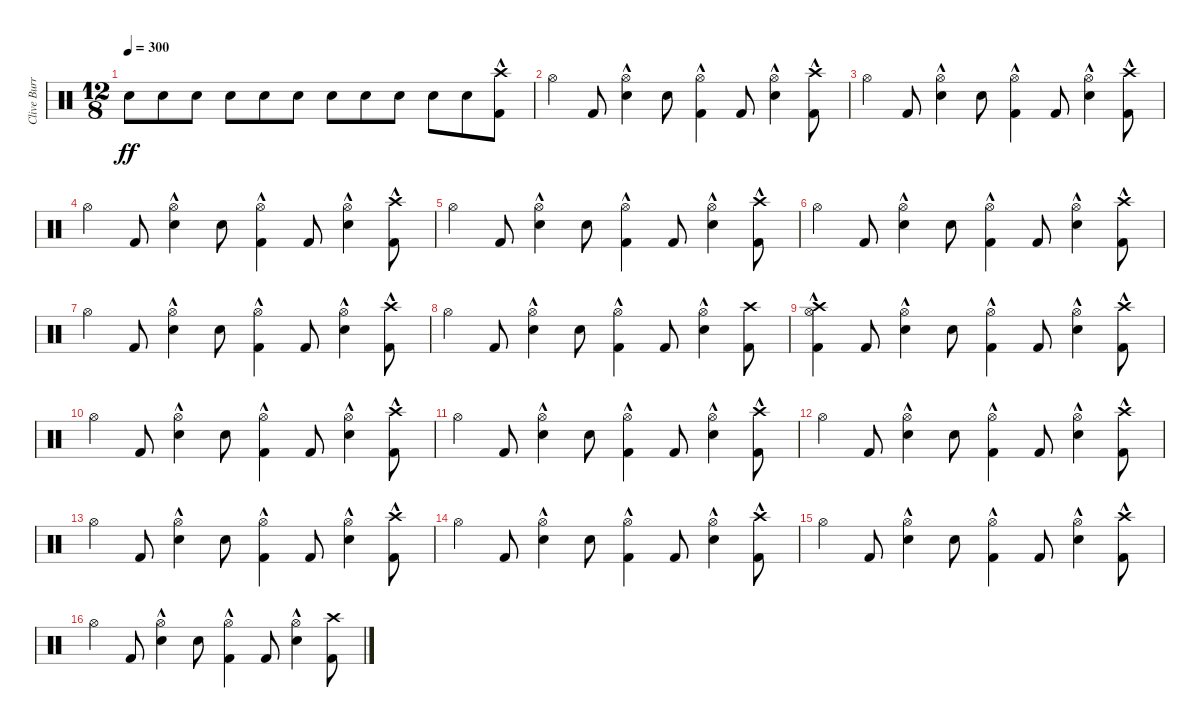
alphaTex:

\track ("Clive Burr" "Clive Burr") {instrument percussion}
\staff {score}
\articulation defaults
\ts (12 8)
\tempo 300
\clef neutral
\ks c "Snare (hit) 2".8{dy ff} "Snare (hit) 2".8 "Snare (hit) 2".8 "Snare (hit) 2".8 "Snare (hit) 2".8 "Snare (hit) 2".8 "Snare (hit) 2".8 "Snare (hit) 2".8 "Snare (hit) 2".8 "Snare (hit) 2".8 "Snare (hit) 2".8
("Kick (hit) 2" "Crash high (hit)"{hac}).8 |
"Hi-Hat (open)".4 "Kick (hit) 2".8 ("Snare (hit) 2"{hac} "Hi-Hat (open)").4 "Snare (hit) 2".8 ("Kick (hit) 2"{hac} "Hi-Hat (open)").4 "Kick (hit) 2".8 ("Snare (hit) 2"{hac} "Hi-Hat (open)").4 ("Kick (hit) 2" "Crash high (hit)"{hac}).8 |
"Hi-Hat (open)".4 "Kick (hit) 2".8 ("Snare (hit) 2"{hac} "Hi-Hat (open)").4 "Snare (hit) 2".8 ("Kick (hit) 2"{hac} "Hi-Hat (open)").4 "Kick (hit) 2".8 ("Snare (hit) 2"{hac} "Hi-Hat (open)").4 ("Kick (hit) 2" "Crash high (hit)"{hac}).8 |
"Hi-Hat (open)".4 "Kick (hit) 2".8 ("Snare (hit) 2"{hac} "Hi-Hat (open)").4 "Snare (hit) 2".8 ("Kick (hit) 2"{hac} "Hi-Hat (open)").4 "Kick (hit) 2".8 ("Snare (hit) 2"{hac} "Hi-Hat (open)").4 ("Kick (hit) 2" "Crash high (hit)"{hac}).8 |
"Hi-Hat (open)".4 "Kick (hit) 2".8 ("Snare (hit) 2"{hac} "Hi-Hat (open)").4 "Snare (hit) 2".8 ("Kick (hit) 2"{hac} "Hi-Hat (open)").4 "Kick (hit) 2".8 ("Snare (hit) 2"{hac} "Hi-Hat (open)").4 ("Kick (hit) 2" "Crash high (hit)"{hac}).8 |
"Hi-Hat (open)".4 "Kick (hit) 2".8 ("Snare (hit) 2"{hac} "Hi-Hat (open)").4 "Snare (hit) 2".8 ("Kick (hit) 2"{hac} "Hi-Hat (open)").4 "Kick (hit) 2".8 ("Snare (hit) 2"{hac} "Hi-Hat (open)").4 ("Kick (hit) 2" "Crash high (hit)"{hac}).8 |
"Hi-Hat (open)".4 "Kick (hit) 2".8 ("Snare (hit) 2"{hac} "Hi-Hat (open)").4 "Snare (hit) 2".8 ("Kick (hit) 2"{hac} "Hi-Hat (open)").4 "Kick (hit) 2".8 ("Snare (hit) 2"{hac} "Hi-Hat (open)").4 ("Kick (hit) 2" "Crash high (hit)"{hac}).8 |
"Hi-Hat (open)".4 "Kick (hit) 2".8 ("Snare (hit) 2"{hac} "Hi-Hat (open)").4 "Snare (hit) 2".8 ("Kick (hit) 2"{hac} "Hi-Hat (open)").4 "Kick (hit) 2".8 ("Snare (hit) 2"{hac} "Hi-Hat (open)").4 ("Kick (hit) 2" "Crash high (hit)").8 |
("Kick (hit) 2"{hac} "Hi-Hat (open)" "Crash high (hit)").4 "Kick (hit) 2".8 ("Snare (hit) 2"{hac} "Hi-Hat (open)").4 "Snare (hit) 2".8 ("Kick (hit) 2"{hac} "Hi-Hat (open)").4 "Kick (hit) 2".8 ("Snare (hit) 2"{hac} "Hi-Hat (open)").4 ("Kick (hit) 2" "Crash high (hit)"{hac}).8 |
"Hi-Hat (open)".4 "Kick (hit) 2".8 ("Snare (hit) 2"{hac} "Hi-Hat (open)").4 "Snare (hit) 2".8 ("Kick (hit) 2"{hac} "Hi-Hat (open)").4 "Kick (hit) 2".8 ("Snare (hit) 2"{hac} "Hi-Hat (open)").4 ("Kick (hit) 2" "Crash high (hit)"{hac}).8 |
"Hi-Hat (open)".4 "Kick (hit) 2".8 ("Snare (hit) 2"{hac} "Hi-Hat (open)").4 "Snare (hit) 2".8 ("Kick (hit) 2"{hac} "Hi-Hat (open)").4 "Kick (hit) 2".8 ("Snare (hit) 2"{hac} "Hi-Hat (open)").4 ("Kick (hit) 2" "Crash high (hit)"{hac}).8 |
"Hi-Hat (open)".4 "Kick (hit) 2".8 ("Snare (hit) 2"{hac} "Hi-Hat (open)").4 "Snare (hit) 2".8 ("Kick (hit) 2"{hac} "Hi-Hat (open)").4 "Kick (hit) 2".8 ("Snare (hit) 2"{hac} "Hi-Hat (open)").4 ("Kick (hit) 2" "Crash high (hit)"{hac}).8 |
"Hi-Hat (open)".4 "Kick (hit) 2".8 ("Snare (hit) 2"{hac} "Hi-Hat (open)").4 "Snare (hit) 2".8 ("Kick (hit) 2"{hac} "Hi-Hat (open)").4 "Kick (hit) 2".8 ("Snare (hit) 2"{hac} "Hi-Hat (open)").4 ("Kick (hit) 2" "Crash high (hit)"{hac}).8 |
"Hi-Hat (open)".4 "Kick (hit) 2".8 ("Snare (hit) 2"{hac} "Hi-Hat (open)").4 "Snare (hit) 2".8 ("Kick (hit) 2"{hac} "Hi-Hat (open)").4 "Kick (hit) 2".8 ("Snare (hit) 2"{hac} "Hi-Hat (open)").4 ("Kick (hit) 2" "Crash high (hit)"{hac}).8 |
"Hi-Hat (open)".4 "Kick (hit) 2".8 ("Snare (hit) 2"{hac} "Hi-Hat (open)").4 "Snare (hit) 2".8 ("Kick (hit) 2"{hac} "Hi-Hat (open)").4 "Kick (hit) 2".8 ("Snare (hit) 2"{hac} "Hi-Hat (open)").4 ("Kick (hit) 2" "Crash high (hit)"{hac}).8 |
"Hi-Hat (open)".4 "Kick (hit) 2".8 ("Snare (hit) 2"{hac} "Hi-Hat (open)").4 "Snare (hit) 2".8 ("Kick (hit) 2"{hac} "Hi-Hat (open)").4 "Kick (hit) 2".8 ("Snare (hit) 2"{hac} "Hi-Hat (open)").4 ("Kick (hit) 2" "Crash high (hit)").8
